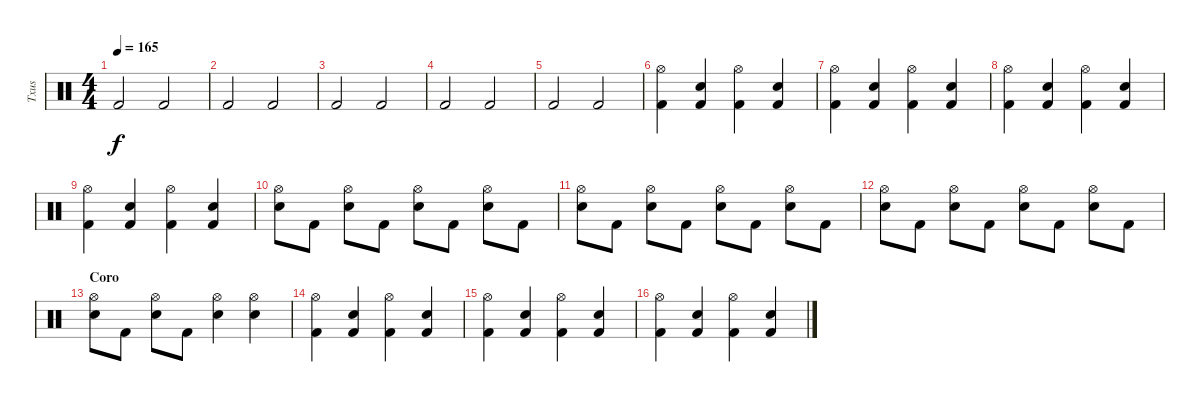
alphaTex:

\track ("Txus" "Txus") {instrument percussion}
\staff {score}
\articulation defaults
\ts (4 4)
\tempo 165
\clef neutral
\ks c "Kick (hit) 2".2{dy f} "Kick (hit) 2".2
|
"Kick (hit) 2".2 "Kick (hit) 2".2 |
"Kick (hit) 2".2 "Kick (hit) 2".2 |
"Kick (hit) 2".2 "Kick (hit) 2".2 |
"Kick (hit) 2".2 "Kick (hit) 2".2 |
("Hi-Hat (open)" "Kick (hit) 2").4 ("Snare (hit) 2" "Kick (hit) 2").4 ("Hi-Hat (open)" "Kick (hit) 2").4 ("Snare (hit) 2" "Kick (hit) 2").4 |
("Hi-Hat (open)" "Kick (hit) 2").4 ("Snare (hit) 2" "Kick (hit) 2").4 ("Hi-Hat (open)" "Kick (hit) 2").4 ("Snare (hit) 2" "Kick (hit) 2").4 |
("Hi-Hat (open)" "Kick (hit) 2").4 ("Snare (hit) 2" "Kick (hit) 2").4 ("Hi-Hat (open)" "Kick (hit) 2").4 ("Snare (hit) 2" "Kick (hit) 2").4 |
("Hi-Hat (open)" "Kick (hit) 2").4 ("Snare (hit) 2" "Kick (hit) 2").4 ("Hi-Hat (open)" "Kick (hit) 2").4 ("Snare (hit) 2" "Kick (hit) 2").4 |
("Snare (hit) 2" "Hi-Hat (open)").8 "Kick (hit) 2".8 ("Snare (hit) 2" "Hi-Hat (open)").8 "Kick (hit) 2".8 ("Snare (hit) 2" "Hi-Hat (open)").8 "Kick (hit) 2".8 ("Snare (hit) 2" "Hi-Hat (open)").8 "Kick (hit) 2".8 |
("Snare (hit) 2" "Hi-Hat (open)").8 "Kick (hit) 2".8 ("Snare (hit) 2" "Hi-Hat (open)").8 "Kick (hit) 2".8 ("Snare (hit) 2" "Hi-Hat (open)").8 "Kick (hit) 2".8 ("Snare (hit) 2" "Hi-Hat (open)").8 "Kick (hit) 2".8 |
("Snare (hit) 2" "Hi-Hat (open)").8 "Kick (hit) 2".8 ("Snare (hit) 2" "Hi-Hat (open)").8 "Kick (hit) 2".8 ("Snare (hit) 2" "Hi-Hat (open)").8 "Kick (hit) 2".8 ("Snare (hit) 2" "Hi-Hat (open)").8 "Kick (hit) 2".8 |
\section ("" "Coro")
("Snare (hit) 2" "Hi-Hat (open)").8 "Kick (hit) 2".8 ("Snare (hit) 2" "Hi-Hat (open)").8 "Kick (hit) 2".8 ("Snare (hit) 2" "Hi-Hat (open)").4 ("Snare (hit) 2" "Hi-Hat (open)").4 |
("Hi-Hat (open)" "Kick (hit) 2").4 ("Snare (hit) 2" "Kick (hit) 2").4 ("Hi-Hat (open)" "Kick (hit) 2").4 ("Snare (hit) 2" "Kick (hit) 2").4 |
("Hi-Hat (open)" "Kick (hit) 2").4 ("Snare (hit) 2" "Kick (hit) 2").4 ("Hi-Hat (open)" "Kick (hit) 2").4 ("Snare (hit) 2" "Kick (hit) 2").4 |
("Hi-Hat (open)" "Kick (hit) 2").4 ("Snare (hit) 2" "Kick (hit) 2").4 ("Hi-Hat (open)" "Kick (hit) 2").4 ("Snare (hit) 2" "Kick (hit) 2").4
